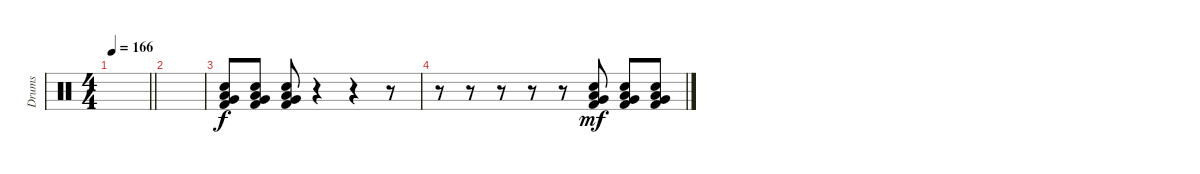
\track ("Drums" "Drums") {instrument percussion}
\staff {score}
\articulation defaults
\ts (4 4)
\tempo 166
\clef neutral
\barLineRight lightlight
\ks c
|
|
("Very Low Tom (hit)" "Low Tom (hit)" "Electric Snare (hit)" "Kick (hit) 2").8 ("Very Low Tom (hit)" "Low Tom (hit)" "Electric Snare (hit)" "Kick (hit) 2").8 ("Very Low Tom (hit)" "Low Tom (hit)" "Electric Snare (hit)" "Kick (hit) 2").8 r.4 r.4 r.8 |
r.8 r.8 r.8 r.8 r.8 ("Low Tom (hit)" "Electric Snare (hit)" "Very Low Tom (hit)" "Kick (hit) 2").8{dy mf} ("Low Tom (hit)" "Electric Snare (hit)" "Very Low Tom (hit)" "Kick (hit) 2").8 ("Low Tom (hit)" "Electric Snare (hit)" "Very Low Tom (hit)" "Kick (hit) 2").8
